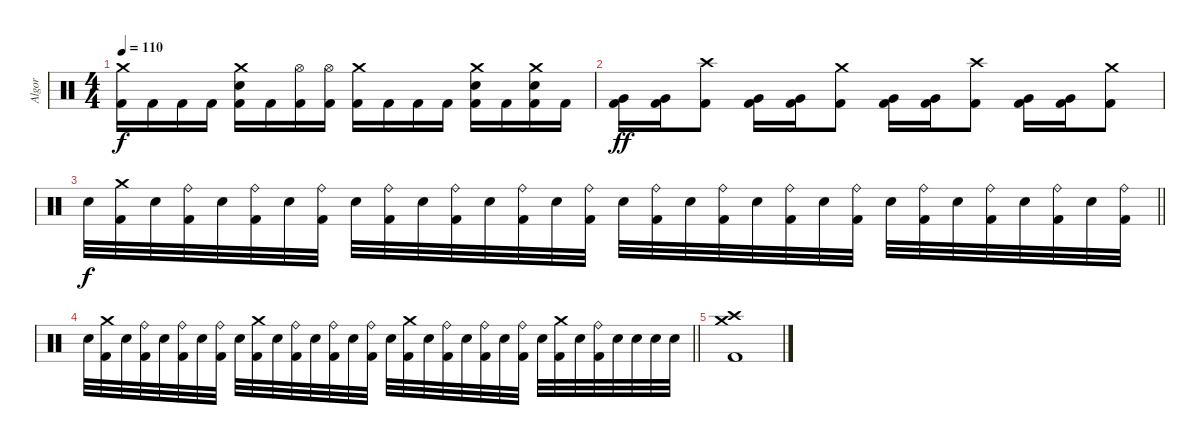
\track ("Algor" "Algor") {instrument percussion}
\staff {score}
\articulation defaults
\ts (4 4)
\tempo 110
\clef neutral
\ks c
("Crash medium (hit)" "Kick (hit) 2").16{dy f} "Kick (hit) 2".16 "Kick (hit) 2".16 "Kick (hit) 2".16 ("Crash medium (hit)" "Snare (hit) 2" "Kick (hit) 2").16 "Kick (hit) 2".16 ("Hi-Hat (open)" "Kick (hit) 2").16 ("Hi-Hat (open)" "Kick (hit) 2").16 ("Crash medium (hit)" "Kick (hit) 2").16 "Kick (hit) 2".16 "Kick (hit) 2".16 "Kick (hit) 2".16 ("Crash medium (hit)" "Snare (hit) 2" "Kick (hit) 2").16 "Kick (hit) 2".16 ("Crash medium (hit)" "Snare (hit) 2" "Kick (hit) 2").16 "Kick (hit) 2".16 |
("Very Low Tom (hit)" "Kick (hit) 2").16{dy ff} ("Very Low Tom (hit)" "Kick (hit) 2").16 ("Crash high (hit)" "Kick (hit) 2").8 ("Very Low Tom (hit)" "Kick (hit) 2").16 ("Very Low Tom (hit)" "Kick (hit) 2").16 ("Crash medium (hit)" "Kick (hit) 2").8 ("Very Low Tom (hit)" "Kick (hit) 2").16 ("Very Low Tom (hit)" "Kick (hit) 2").16 ("Crash high (hit)" "Kick (hit) 2").8 ("Very Low Tom (hit)" "Kick (hit) 2").16 ("Very Low Tom (hit)" "Kick (hit) 2").16 ("Crash medium (hit)" "Kick (hit) 2").8 |
\barLineRight lightlight "Snare (hit) 2".32{dy f}
("Crash medium (hit)" "Kick (hit) 2").32 "Snare (hit) 2".32 ("Ride (bell)" "Kick (hit) 2").32 "Snare (hit) 2".32 ("Ride (bell)" "Kick (hit) 2").32 "Snare (hit) 2".32 ("Ride (bell)" "Kick (hit) 2").32 "Snare (hit) 2".32 ("Ride (bell)" "Kick (hit) 2").32 "Snare (hit) 2".32 ("Ride (bell)" "Kick (hit) 2").32 "Snare (hit) 2".32 ("Ride (bell)" "Kick (hit) 2").32 "Snare (hit) 2".32 ("Ride (bell)" "Kick (hit) 2").32 "Snare (hit) 2".32 ("Ride (bell)" "Kick (hit) 2").32 "Snare (hit) 2".32 ("Ride (bell)" "Kick (hit) 2").32 "Snare (hit) 2".32 ("Ride (bell)" "Kick (hit) 2").32 "Snare (hit) 2".32 ("Ride (bell)" "Kick (hit) 2").32 "Snare (hit) 2".32 ("Ride (bell)" "Kick (hit) 2").32 "Snare (hit) 2".32 ("Ride (bell)" "Kick (hit) 2").32 "Snare (hit) 2".32 ("Ride (bell)" "Kick (hit) 2").32 "Snare (hit) 2".32 ("Ride (bell)" "Kick (hit) 2").32 |
\barLineRight lightlight "Snare (hit) 2".32
("Crash medium (hit)" "Kick (hit) 2").32 "Snare (hit) 2".32 ("Ride (bell)" "Kick (hit) 2").32 "Snare (hit) 2".32 ("Ride (bell)" "Kick (hit) 2").32 "Snare (hit) 2".32 ("Ride (bell)" "Kick (hit) 2").32 "Snare (hit) 2".32 ("Crash medium (hit)" "Kick (hit) 2").32 "Snare (hit) 2".32 ("Ride (bell)" "Kick (hit) 2").32 "Snare (hit) 2".32 ("Ride (bell)" "Kick (hit) 2").32 "Snare (hit) 2".32 ("Ride (bell)" "Kick (hit) 2").32 "Snare (hit) 2".32 ("Crash medium (hit)" "Kick (hit) 2").32 "Snare (hit) 2".32 ("Ride (bell)" "Kick (hit) 2").32 "Snare (hit) 2".32 ("Ride (bell)" "Kick (hit) 2").32 "Snare (hit) 2".32 ("Ride (bell)" "Kick (hit) 2").32 "Snare (hit) 2".32 ("Crash medium (hit)" "Kick (hit) 2").32 "Snare (hit) 2".32 ("Ride (bell)" "Kick (hit) 2").32 "Snare (hit) 2".32 "Snare (hit) 2".32 "Snare (hit) 2".32 "Snare (hit) 2".32 |
("Crash medium (hit)" "Crash high (hit)" "Kick (hit) 2").1
